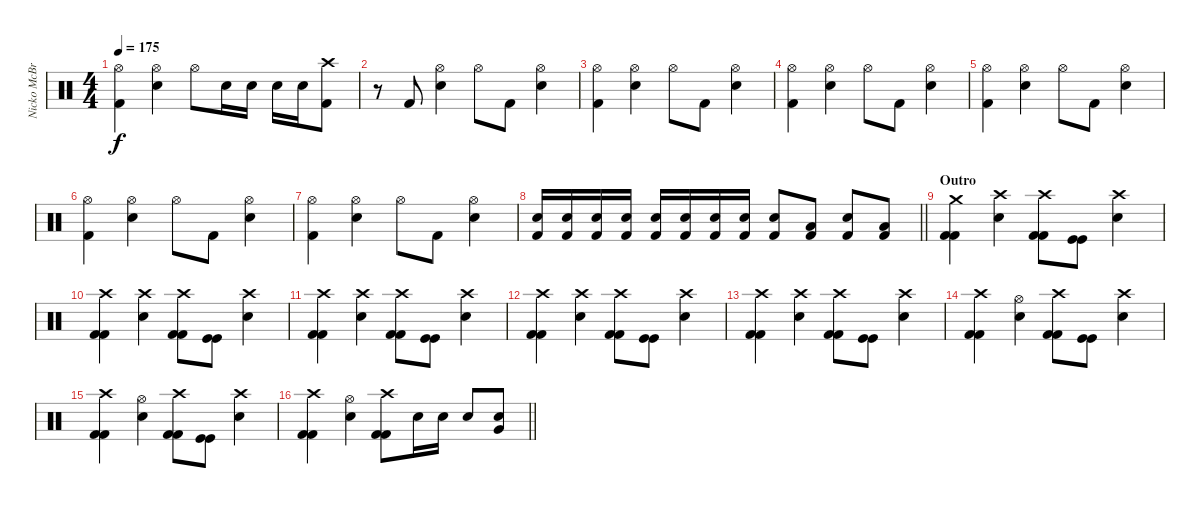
\track ("Nicko McBrian" "Nicko McBr") {instrument percussion}
\staff {score}
\articulation defaults
\ts (4 4)
\tempo 175
\clef neutral
\ks c
("Hi-Hat (open)" "Kick (hit) 2").4{dy f} ("Hi-Hat (open)" "Snare (hit) 2").4 "Hi-Hat (open)".8 "Snare (hit) 2".16 "Snare (hit) 2".16 "Snare (hit) 2".16 "Snare (hit) 2".16 ("Crash high (hit)" "Kick (hit) 2").8 |
r.8 "Kick (hit) 2".8 ("Hi-Hat (open)" "Snare (hit) 2").4 "Hi-Hat (open)".8 "Kick (hit) 2".8 ("Hi-Hat (open)" "Snare (hit) 2").4 |
("Hi-Hat (open)" "Kick (hit) 2").4 ("Hi-Hat (open)" "Snare (hit) 2").4 "Hi-Hat (open)".8 "Kick (hit) 2".8 ("Hi-Hat (open)" "Snare (hit) 2").4 |
("Hi-Hat (open)" "Kick (hit) 2").4 ("Hi-Hat (open)" "Snare (hit) 2").4 "Hi-Hat (open)".8 "Kick (hit) 2".8 ("Hi-Hat (open)" "Snare (hit) 2").4 |
("Hi-Hat (open)" "Kick (hit) 2").4 ("Hi-Hat (open)" "Snare (hit) 2").4 "Hi-Hat (open)".8 "Kick (hit) 2".8 ("Hi-Hat (open)" "Snare (hit) 2").4 |
("Hi-Hat (open)" "Kick (hit) 2").4 ("Hi-Hat (open)" "Snare (hit) 2").4 "Hi-Hat (open)".8 "Kick (hit) 2".8 ("Hi-Hat (open)" "Snare (hit) 2").4 |
("Hi-Hat (open)" "Kick (hit) 2").4 ("Hi-Hat (open)" "Snare (hit) 2").4 "Hi-Hat (open)".8 "Kick (hit) 2".8 ("Hi-Hat (open)" "Snare (hit) 2").4 |
\barLineRight lightlight
("Snare (hit) 2" "Kick (hit) 2").16 ("Snare (hit) 2" "Kick (hit) 2").16 ("Snare (hit) 2" "Kick (hit) 2").16 ("Snare (hit) 2" "Kick (hit) 2").16 ("Snare (hit) 2" "Kick (hit) 2").16 ("Snare (hit) 2" "Kick (hit) 2").16 ("Snare (hit) 2" "Kick (hit) 2").16 ("Snare (hit) 2" "Kick (hit) 2").16 ("Snare (hit) 2" "Kick (hit) 2").8 ("Low Tom (hit)" "Kick (hit) 2").8 ("Snare (hit) 2" "Kick (hit) 2").8 ("Low Tom (hit)" "Kick (hit) 2").8 |
\section ("" "Outro")
("Crash medium (hit)" "Kick (hit) 2" "Kick (hit) 2").4 ("Crash high (hit)" "Snare (hit) 2").4 ("Crash high (hit)" "Kick (hit) 2" "Kick (hit) 2").8 ("Kick (hit)" "Kick (hit)").8 ("Crash high (hit)" "Snare (hit) 2").4 |
("Crash high (hit)" "Kick (hit) 2" "Kick (hit) 2").4 ("Crash high (hit)" "Snare (hit) 2").4 ("Crash high (hit)" "Kick (hit) 2" "Kick (hit) 2").8 ("Kick (hit)" "Kick (hit)").8 ("Crash high (hit)" "Snare (hit) 2").4 |
("Crash high (hit)" "Kick (hit) 2" "Kick (hit) 2").4 ("Crash high (hit)" "Snare (hit) 2").4 ("Crash high (hit)" "Kick (hit) 2" "Kick (hit) 2").8 ("Kick (hit)" "Kick (hit)").8 ("Crash high (hit)" "Snare (hit) 2").4 |
("Crash high (hit)" "Kick (hit) 2" "Kick (hit) 2").4 ("Crash high (hit)" "Snare (hit) 2").4 ("Crash high (hit)" "Kick (hit) 2" "Kick (hit) 2").8 ("Kick (hit)" "Kick (hit)").8 ("Crash high (hit)" "Snare (hit) 2").4 |
("Crash high (hit)" "Kick (hit) 2" "Kick (hit) 2").4 ("Crash high (hit)" "Snare (hit) 2").4 ("Crash high (hit)" "Kick (hit) 2" "Kick (hit) 2").8 ("Kick (hit)" "Kick (hit)").8 ("Crash high (hit)" "Snare (hit) 2").4 |
("Crash high (hit)" "Kick (hit) 2" "Kick (hit) 2").4 ("Hi-Hat (open)" "Snare (hit) 2").4 ("Crash high (hit)" "Kick (hit) 2" "Kick (hit) 2").8 ("Kick (hit)" "Kick (hit)").8 ("Crash high (hit)" "Snare (hit) 2").4 |
("Crash high (hit)" "Kick (hit) 2" "Kick (hit) 2").4 ("Hi-Hat (open)" "Snare (hit) 2").4 ("Crash high (hit)" "Kick (hit) 2" "Kick (hit) 2").8 ("Kick (hit)" "Kick (hit)").8 ("Crash high (hit)" "Snare (hit) 2").4 |
\barLineRight lightlight
("Crash high (hit)" "Kick (hit) 2" "Kick (hit) 2").4 ("Hi-Hat (open)" "Snare (hit) 2").4 ("Crash high (hit)" "Kick (hit) 2" "Kick (hit) 2").8 "Snare (hit) 2".16 "Snare (hit) 2".16 "Snare (hit) 2".8 ("Snare (hit) 2" "Very Low Tom (hit)").8
